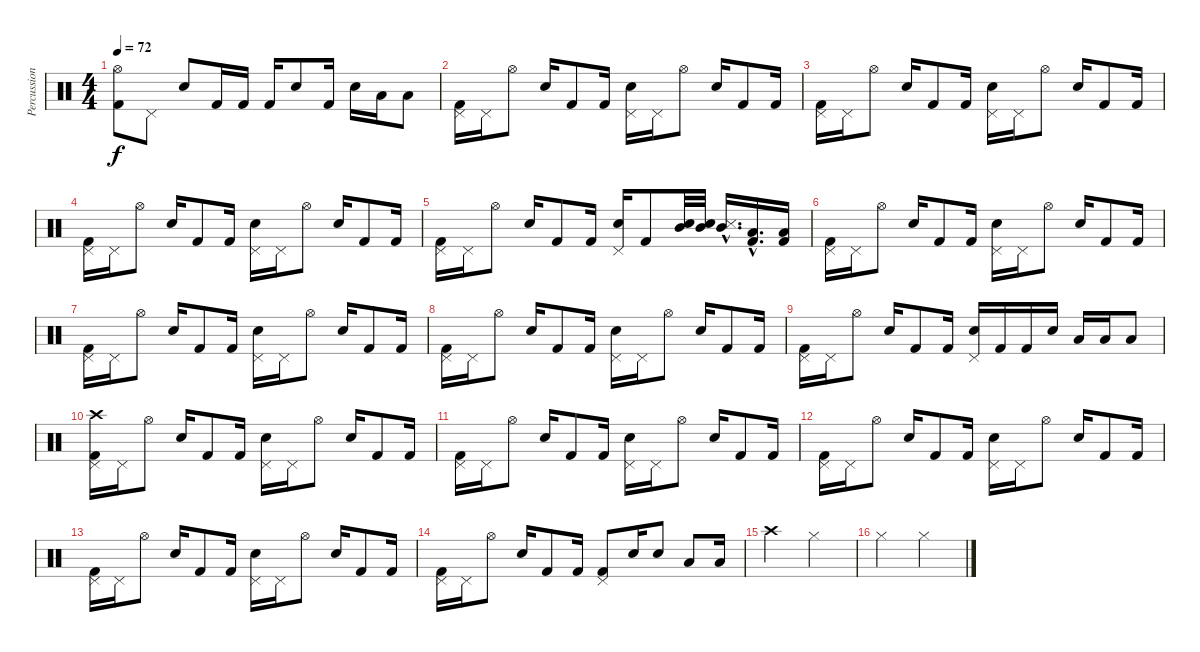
\track ("Percussion" "Percussion") {instrument percussion}
\staff {score}
\articulation defaults
\ts (4 4)
\tempo 72
\clef neutral
\ks c
("Hi-Hat (open)" "Kick (hit) 2").8{dy f} "Pedal Hi-Hat (hit)".8 "Snare (hit) 2".8 "Kick (hit) 2".16 "Kick (hit) 2".16 "Kick (hit) 2".16 "Snare (hit) 2".8 "Kick (hit) 2".16 "Snare (hit) 2".16 "Low Floor Tom (hit)".16 "Low Floor Tom (hit)".8 |
("Kick (hit) 2" "Pedal Hi-Hat (hit)").16 "Pedal Hi-Hat (hit)".16 "Hi-Hat (open)".8 "Snare (hit) 2".16 "Kick (hit) 2".8 "Kick (hit) 2".16 ("Pedal Hi-Hat (hit)" "Snare (hit) 2").16 "Pedal Hi-Hat (hit)".16 "Hi-Hat (open)".8 "Snare (hit) 2".16 "Kick (hit) 2".8 "Kick (hit) 2".16 |
("Kick (hit) 2" "Pedal Hi-Hat (hit)").16 "Pedal Hi-Hat (hit)".16 "Hi-Hat (open)".8 "Snare (hit) 2".16 "Kick (hit) 2".8 "Kick (hit) 2".16 ("Pedal Hi-Hat (hit)" "Snare (hit) 2").16 "Pedal Hi-Hat (hit)".16 "Hi-Hat (open)".8 "Snare (hit) 2".16 "Kick (hit) 2".8 "Kick (hit) 2".16 |
("Kick (hit) 2" "Pedal Hi-Hat (hit)").16 "Pedal Hi-Hat (hit)".16 "Hi-Hat (open)".8 "Snare (hit) 2".16 "Kick (hit) 2".8 "Kick (hit) 2".16 ("Pedal Hi-Hat (hit)" "Snare (hit) 2").16 "Pedal Hi-Hat (hit)".16 "Hi-Hat (open)".8 "Snare (hit) 2".16 "Kick (hit) 2".8 "Kick (hit) 2".16 |
("Kick (hit) 2" "Pedal Hi-Hat (hit)").16 "Pedal Hi-Hat (hit)".16 "Hi-Hat (open)".8 "Snare (hit) 2".16 "Kick (hit) 2".8 "Kick (hit) 2".16 ("Pedal Hi-Hat (hit)" "Snare (hit) 2").16 "Kick (hit) 2".8 ("Snare (hit) 2" "Mid Tom (hit)").32 ("Snare (hit) 2" "Mid Tom (hit)").32 ("Snare (side stick) 3"{hac} "Mid Tom (hit)"{hac}).16{d} ("Low Tom (hit)"{hac} "Kick (hit) 2"{hac}).16{d} ("Low Floor Tom (hit)" "Kick (hit) 2").16 |
("Kick (hit) 2" "Pedal Hi-Hat (hit)").16 "Pedal Hi-Hat (hit)".16 "Hi-Hat (open)".8 "Snare (hit) 2".16 "Kick (hit) 2".8 "Kick (hit) 2".16 ("Pedal Hi-Hat (hit)" "Snare (hit) 2").16 "Pedal Hi-Hat (hit)".16 "Hi-Hat (open)".8 "Snare (hit) 2".16 "Kick (hit) 2".8 "Kick (hit) 2".16 |
("Kick (hit) 2" "Pedal Hi-Hat (hit)").16 "Pedal Hi-Hat (hit)".16 "Hi-Hat (open)".8 "Snare (hit) 2".16 "Kick (hit) 2".8 "Kick (hit) 2".16 ("Pedal Hi-Hat (hit)" "Snare (hit) 2").16 "Pedal Hi-Hat (hit)".16 "Hi-Hat (open)".8 "Snare (hit) 2".16 "Kick (hit) 2".8 "Kick (hit) 2".16 |
("Kick (hit) 2" "Pedal Hi-Hat (hit)").16 "Pedal Hi-Hat (hit)".16 "Hi-Hat (open)".8 "Snare (hit) 2".16 "Kick (hit) 2".8 "Kick (hit) 2".16 ("Pedal Hi-Hat (hit)" "Snare (hit) 2").16 "Pedal Hi-Hat (hit)".16 "Hi-Hat (open)".8 "Snare (hit) 2".16 "Kick (hit) 2".8 "Kick (hit) 2".16 |
("Kick (hit) 2" "Pedal Hi-Hat (hit)").16 "Pedal Hi-Hat (hit)".16 "Hi-Hat (open)".8 "Snare (hit) 2".16 "Kick (hit) 2".8 "Kick (hit) 2".16 ("Pedal Hi-Hat (hit)" "Snare (hit) 2").16 "Kick (hit) 2".16 "Kick (hit) 2".16 "Snare (hit) 2".16 "Low Tom (hit)".16 "Low Floor Tom (hit)".16 "Low Floor Tom (hit)".8 |
("Crash high (hit)" "Kick (hit) 2" "Pedal Hi-Hat (hit)").16 "Pedal Hi-Hat (hit)".16 "Hi-Hat (open)".8 "Snare (hit) 2".16 "Kick (hit) 2".8 "Kick (hit) 2".16 ("Pedal Hi-Hat (hit)" "Snare (hit) 2").16 "Pedal Hi-Hat (hit)".16 "Hi-Hat (open)".8 "Snare (hit) 2".16 "Kick (hit) 2".8 "Kick (hit) 2".16 |
("Kick (hit) 2" "Pedal Hi-Hat (hit)").16 "Pedal Hi-Hat (hit)".16 "Hi-Hat (open)".8 "Snare (hit) 2".16 "Kick (hit) 2".8 "Kick (hit) 2".16 ("Pedal Hi-Hat (hit)" "Snare (hit) 2").16 "Pedal Hi-Hat (hit)".16 "Hi-Hat (open)".8 "Snare (hit) 2".16 "Kick (hit) 2".8 "Kick (hit) 2".16 |
("Kick (hit) 2" "Pedal Hi-Hat (hit)").16 "Pedal Hi-Hat (hit)".16 "Hi-Hat (open)".8 "Snare (hit) 2".16 "Kick (hit) 2".8 "Kick (hit) 2".16 ("Pedal Hi-Hat (hit)" "Snare (hit) 2").16 "Pedal Hi-Hat (hit)".16 "Hi-Hat (open)".8 "Snare (hit) 2".16 "Kick (hit) 2".8 "Kick (hit) 2".16 |
("Kick (hit) 2" "Pedal Hi-Hat (hit)").16 "Pedal Hi-Hat (hit)".16 "Hi-Hat (open)".8 "Snare (hit) 2".16 "Kick (hit) 2".8 "Kick (hit) 2".16 ("Pedal Hi-Hat (hit)" "Snare (hit) 2").16 "Pedal Hi-Hat (hit)".16 "Hi-Hat (open)".8 "Snare (hit) 2".16 "Kick (hit) 2".8 "Kick (hit) 2".16 |
("Kick (hit) 2" "Pedal Hi-Hat (hit)").16 "Pedal Hi-Hat (hit)".16 "Hi-Hat (open)".8 "Snare (hit) 2".16 "Kick (hit) 2".8 "Kick (hit) 2".16 ("Pedal Hi-Hat (hit)" "Kick (hit) 2").8 "Snare (hit) 2".16 "Snare (hit) 2".8 "Low Tom (hit)".8 "Low Floor Tom (hit)".16 |
"Crash high (hit)".2 "Hi-Hat (closed)".2 |
"Hi-Hat (closed)".2 "Hi-Hat (closed)".2
